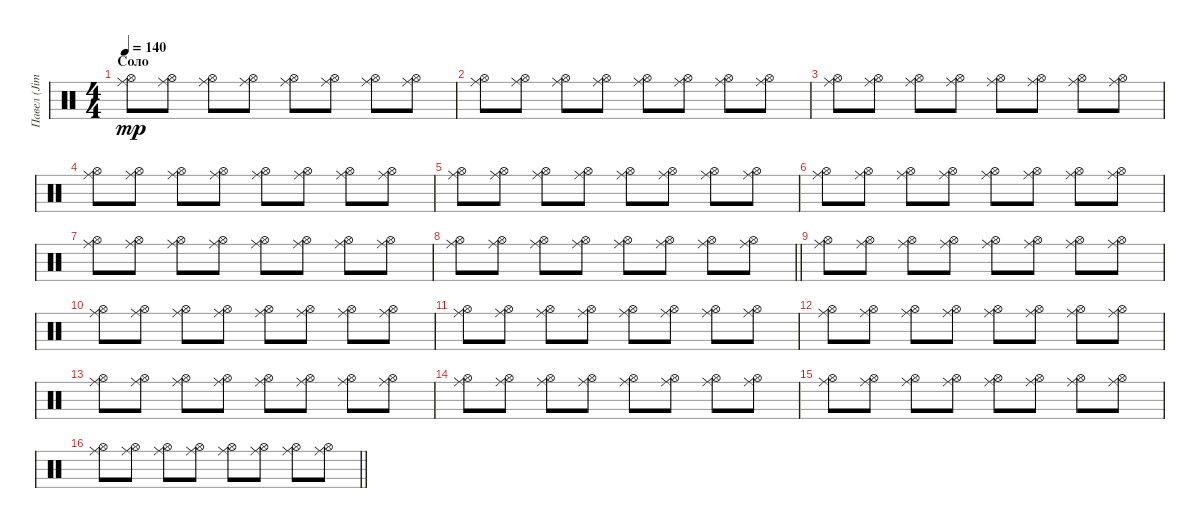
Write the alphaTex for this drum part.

\track ("Павел (Jimmy) Лохнин" "Павел (Jim") {instrument percussion}
\staff {score}
\articulation defaults
\ts (4 4)
\section ("" "Соло")
\tempo 140
\clef neutral
\ks c
("Ride (middle)" "Hi-Hat (open)").8{dy mp} ("Ride (middle)" "Hi-Hat (open)").8 ("Ride (middle)" "Hi-Hat (open)").8 ("Ride (middle)" "Hi-Hat (open)").8 ("Ride (middle)" "Hi-Hat (open)").8 ("Ride (middle)" "Hi-Hat (open)").8 ("Ride (middle)" "Hi-Hat (open)").8 ("Ride (middle)" "Hi-Hat (open)").8 |
("Ride (middle)" "Hi-Hat (open)").8 ("Ride (middle)" "Hi-Hat (open)").8 ("Ride (middle)" "Hi-Hat (open)").8 ("Ride (middle)" "Hi-Hat (open)").8 ("Ride (middle)" "Hi-Hat (open)").8 ("Ride (middle)" "Hi-Hat (open)").8 ("Ride (middle)" "Hi-Hat (open)").8 ("Ride (middle)" "Hi-Hat (open)").8 |
("Ride (middle)" "Hi-Hat (open)").8 ("Ride (middle)" "Hi-Hat (open)").8 ("Ride (middle)" "Hi-Hat (open)").8 ("Ride (middle)" "Hi-Hat (open)").8 ("Ride (middle)" "Hi-Hat (open)").8 ("Ride (middle)" "Hi-Hat (open)").8 ("Ride (middle)" "Hi-Hat (open)").8 ("Ride (middle)" "Hi-Hat (open)").8 |
("Ride (middle)" "Hi-Hat (open)").8 ("Ride (middle)" "Hi-Hat (open)").8 ("Ride (middle)" "Hi-Hat (open)").8 ("Ride (middle)" "Hi-Hat (open)").8 ("Ride (middle)" "Hi-Hat (open)").8 ("Ride (middle)" "Hi-Hat (open)").8 ("Ride (middle)" "Hi-Hat (open)").8 ("Ride (middle)" "Hi-Hat (open)").8 |
("Ride (middle)" "Hi-Hat (open)").8 ("Ride (middle)" "Hi-Hat (open)").8 ("Ride (middle)" "Hi-Hat (open)").8 ("Ride (middle)" "Hi-Hat (open)").8 ("Ride (middle)" "Hi-Hat (open)").8 ("Ride (middle)" "Hi-Hat (open)").8 ("Ride (middle)" "Hi-Hat (open)").8 ("Ride (middle)" "Hi-Hat (open)").8 |
("Ride (middle)" "Hi-Hat (open)").8 ("Ride (middle)" "Hi-Hat (open)").8 ("Ride (middle)" "Hi-Hat (open)").8 ("Ride (middle)" "Hi-Hat (open)").8 ("Ride (middle)" "Hi-Hat (open)").8 ("Ride (middle)" "Hi-Hat (open)").8 ("Ride (middle)" "Hi-Hat (open)").8 ("Ride (middle)" "Hi-Hat (open)").8 |
("Ride (middle)" "Hi-Hat (open)").8 ("Ride (middle)" "Hi-Hat (open)").8 ("Ride (middle)" "Hi-Hat (open)").8 ("Ride (middle)" "Hi-Hat (open)").8 ("Ride (middle)" "Hi-Hat (open)").8 ("Ride (middle)" "Hi-Hat (open)").8 ("Ride (middle)" "Hi-Hat (open)").8 ("Ride (middle)" "Hi-Hat (open)").8 |
\barLineRight lightlight
("Ride (middle)" "Hi-Hat (open)").8 ("Ride (middle)" "Hi-Hat (open)").8 ("Ride (middle)" "Hi-Hat (open)").8 ("Ride (middle)" "Hi-Hat (open)").8 ("Ride (middle)" "Hi-Hat (open)").8 ("Ride (middle)" "Hi-Hat (open)").8 ("Ride (middle)" "Hi-Hat (open)").8 ("Ride (middle)" "Hi-Hat (open)").8 |
("Ride (middle)" "Hi-Hat (open)").8 ("Ride (middle)" "Hi-Hat (open)").8 ("Ride (middle)" "Hi-Hat (open)").8 ("Ride (middle)" "Hi-Hat (open)").8 ("Ride (middle)" "Hi-Hat (open)").8 ("Ride (middle)" "Hi-Hat (open)").8 ("Ride (middle)" "Hi-Hat (open)").8 ("Ride (middle)" "Hi-Hat (open)").8 |
("Ride (middle)" "Hi-Hat (open)").8 ("Ride (middle)" "Hi-Hat (open)").8 ("Ride (middle)" "Hi-Hat (open)").8 ("Ride (middle)" "Hi-Hat (open)").8 ("Ride (middle)" "Hi-Hat (open)").8 ("Ride (middle)" "Hi-Hat (open)").8 ("Ride (middle)" "Hi-Hat (open)").8 ("Ride (middle)" "Hi-Hat (open)").8 |
("Ride (middle)" "Hi-Hat (open)").8 ("Ride (middle)" "Hi-Hat (open)").8 ("Ride (middle)" "Hi-Hat (open)").8 ("Ride (middle)" "Hi-Hat (open)").8 ("Ride (middle)" "Hi-Hat (open)").8 ("Ride (middle)" "Hi-Hat (open)").8 ("Ride (middle)" "Hi-Hat (open)").8 ("Ride (middle)" "Hi-Hat (open)").8 |
("Ride (middle)" "Hi-Hat (open)").8 ("Ride (middle)" "Hi-Hat (open)").8 ("Ride (middle)" "Hi-Hat (open)").8 ("Ride (middle)" "Hi-Hat (open)").8 ("Ride (middle)" "Hi-Hat (open)").8 ("Ride (middle)" "Hi-Hat (open)").8 ("Ride (middle)" "Hi-Hat (open)").8 ("Ride (middle)" "Hi-Hat (open)").8 |
("Ride (middle)" "Hi-Hat (open)").8 ("Ride (middle)" "Hi-Hat (open)").8 ("Ride (middle)" "Hi-Hat (open)").8 ("Ride (middle)" "Hi-Hat (open)").8 ("Ride (middle)" "Hi-Hat (open)").8 ("Ride (middle)" "Hi-Hat (open)").8 ("Ride (middle)" "Hi-Hat (open)").8 ("Ride (middle)" "Hi-Hat (open)").8 |
("Ride (middle)" "Hi-Hat (open)").8 ("Ride (middle)" "Hi-Hat (open)").8 ("Ride (middle)" "Hi-Hat (open)").8 ("Ride (middle)" "Hi-Hat (open)").8 ("Ride (middle)" "Hi-Hat (open)").8 ("Ride (middle)" "Hi-Hat (open)").8 ("Ride (middle)" "Hi-Hat (open)").8 ("Ride (middle)" "Hi-Hat (open)").8 |
("Ride (middle)" "Hi-Hat (open)").8 ("Ride (middle)" "Hi-Hat (open)").8 ("Ride (middle)" "Hi-Hat (open)").8 ("Ride (middle)" "Hi-Hat (open)").8 ("Ride (middle)" "Hi-Hat (open)").8 ("Ride (middle)" "Hi-Hat (open)").8 ("Ride (middle)" "Hi-Hat (open)").8 ("Ride (middle)" "Hi-Hat (open)").8 |
\barLineRight lightlight
("Ride (middle)" "Hi-Hat (open)").8 ("Ride (middle)" "Hi-Hat (open)").8 ("Ride (middle)" "Hi-Hat (open)").8 ("Ride (middle)" "Hi-Hat (open)").8 ("Ride (middle)" "Hi-Hat (open)").8 ("Ride (middle)" "Hi-Hat (open)").8 ("Ride (middle)" "Hi-Hat (open)").8 ("Ride (middle)" "Hi-Hat (open)").8
